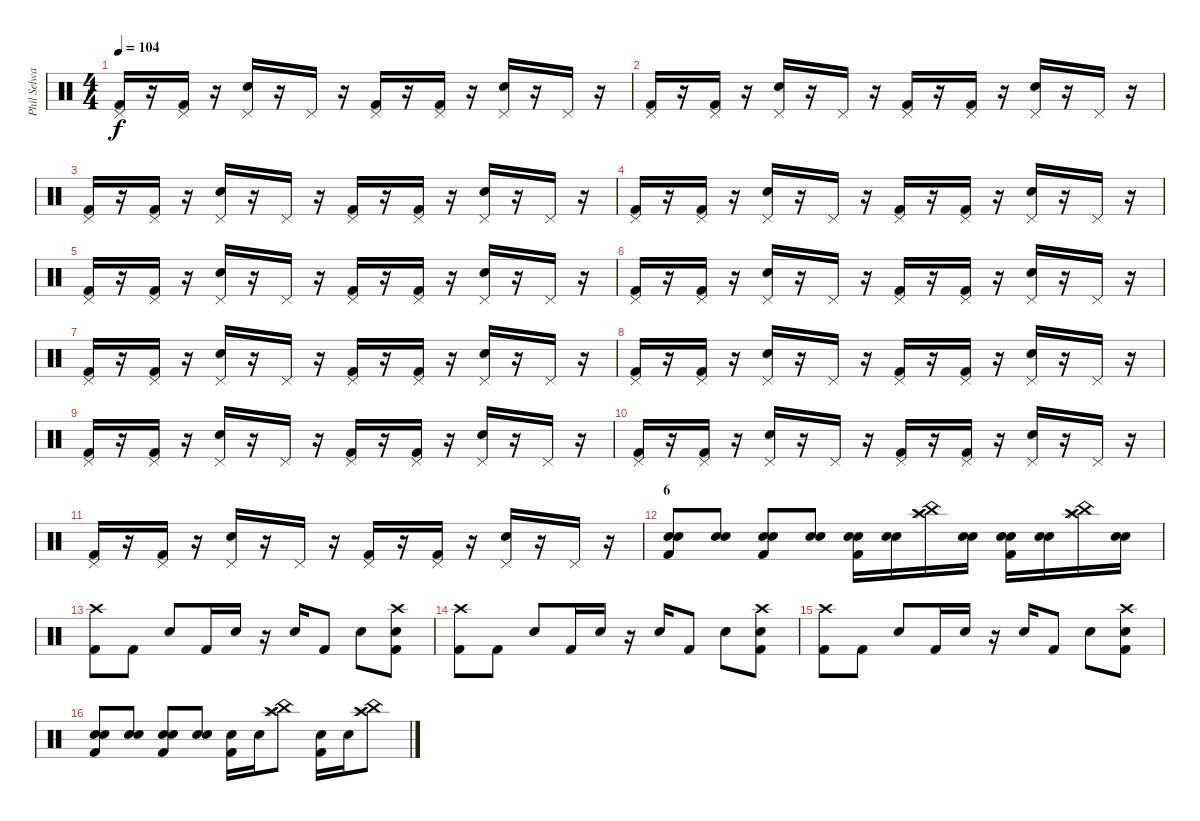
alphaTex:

\track ("Phil Selway" "Phil Selwa") {instrument percussion}
\staff {score}
\articulation defaults
\ts (4 4)
\tempo 104
\clef neutral
\ks c
("Pedal Hi-Hat (hit)" "Kick (hit) 2").16{dy f} r.16 ("Pedal Hi-Hat (hit)" "Kick (hit) 2").16 r.16 ("Pedal Hi-Hat (hit)" "Electric Snare (hit)").16 r.16 "Pedal Hi-Hat (hit)".16 r.16 ("Pedal Hi-Hat (hit)" "Kick (hit) 2").16 r.16 ("Pedal Hi-Hat (hit)" "Kick (hit) 2").16 r.16 ("Pedal Hi-Hat (hit)" "Electric Snare (hit)").16 r.16 "Pedal Hi-Hat (hit)".16 r.16 |
("Pedal Hi-Hat (hit)" "Kick (hit) 2").16 r.16 ("Pedal Hi-Hat (hit)" "Kick (hit) 2").16 r.16 ("Pedal Hi-Hat (hit)" "Electric Snare (hit)").16 r.16 "Pedal Hi-Hat (hit)".16 r.16 ("Pedal Hi-Hat (hit)" "Kick (hit) 2").16 r.16 ("Pedal Hi-Hat (hit)" "Kick (hit) 2").16 r.16 ("Pedal Hi-Hat (hit)" "Electric Snare (hit)").16 r.16 "Pedal Hi-Hat (hit)".16 r.16 |
("Pedal Hi-Hat (hit)" "Kick (hit) 2").16 r.16 ("Pedal Hi-Hat (hit)" "Kick (hit) 2").16 r.16 ("Pedal Hi-Hat (hit)" "Electric Snare (hit)").16 r.16 "Pedal Hi-Hat (hit)".16 r.16 ("Pedal Hi-Hat (hit)" "Kick (hit) 2").16 r.16 ("Pedal Hi-Hat (hit)" "Kick (hit) 2").16 r.16 ("Pedal Hi-Hat (hit)" "Electric Snare (hit)").16 r.16 "Pedal Hi-Hat (hit)".16 r.16 |
("Pedal Hi-Hat (hit)" "Kick (hit) 2").16 r.16 ("Pedal Hi-Hat (hit)" "Kick (hit) 2").16 r.16 ("Pedal Hi-Hat (hit)" "Electric Snare (hit)").16 r.16 "Pedal Hi-Hat (hit)".16 r.16 ("Pedal Hi-Hat (hit)" "Kick (hit) 2").16 r.16 ("Pedal Hi-Hat (hit)" "Kick (hit) 2").16 r.16 ("Pedal Hi-Hat (hit)" "Electric Snare (hit)").16 r.16 "Pedal Hi-Hat (hit)".16 r.16 |
("Pedal Hi-Hat (hit)" "Kick (hit) 2").16 r.16 ("Pedal Hi-Hat (hit)" "Kick (hit) 2").16 r.16 ("Pedal Hi-Hat (hit)" "Electric Snare (hit)").16 r.16 "Pedal Hi-Hat (hit)".16 r.16 ("Pedal Hi-Hat (hit)" "Kick (hit) 2").16 r.16 ("Pedal Hi-Hat (hit)" "Kick (hit) 2").16 r.16 ("Pedal Hi-Hat (hit)" "Electric Snare (hit)").16 r.16 "Pedal Hi-Hat (hit)".16 r.16 |
("Pedal Hi-Hat (hit)" "Kick (hit) 2").16 r.16 ("Pedal Hi-Hat (hit)" "Kick (hit) 2").16 r.16 ("Pedal Hi-Hat (hit)" "Electric Snare (hit)").16 r.16 "Pedal Hi-Hat (hit)".16 r.16 ("Pedal Hi-Hat (hit)" "Kick (hit) 2").16 r.16 ("Pedal Hi-Hat (hit)" "Kick (hit) 2").16 r.16 ("Pedal Hi-Hat (hit)" "Electric Snare (hit)").16 r.16 "Pedal Hi-Hat (hit)".16 r.16 |
("Pedal Hi-Hat (hit)" "Kick (hit) 2").16 r.16 ("Pedal Hi-Hat (hit)" "Kick (hit) 2").16 r.16 ("Pedal Hi-Hat (hit)" "Electric Snare (hit)").16 r.16 "Pedal Hi-Hat (hit)".16 r.16 ("Pedal Hi-Hat (hit)" "Kick (hit) 2").16 r.16 ("Pedal Hi-Hat (hit)" "Kick (hit) 2").16 r.16 ("Pedal Hi-Hat (hit)" "Electric Snare (hit)").16 r.16 "Pedal Hi-Hat (hit)".16 r.16 |
("Pedal Hi-Hat (hit)" "Kick (hit) 2").16 r.16 ("Pedal Hi-Hat (hit)" "Kick (hit) 2").16 r.16 ("Pedal Hi-Hat (hit)" "Electric Snare (hit)").16 r.16 "Pedal Hi-Hat (hit)".16 r.16 ("Pedal Hi-Hat (hit)" "Kick (hit) 2").16 r.16 ("Pedal Hi-Hat (hit)" "Kick (hit) 2").16 r.16 ("Pedal Hi-Hat (hit)" "Electric Snare (hit)").16 r.16 "Pedal Hi-Hat (hit)".16 r.16 |
("Pedal Hi-Hat (hit)" "Kick (hit) 2").16 r.16 ("Pedal Hi-Hat (hit)" "Kick (hit) 2").16 r.16 ("Pedal Hi-Hat (hit)" "Electric Snare (hit)").16 r.16 "Pedal Hi-Hat (hit)".16 r.16 ("Pedal Hi-Hat (hit)" "Kick (hit) 2").16 r.16 ("Pedal Hi-Hat (hit)" "Kick (hit) 2").16 r.16 ("Pedal Hi-Hat (hit)" "Electric Snare (hit)").16 r.16 "Pedal Hi-Hat (hit)".16 r.16 |
("Pedal Hi-Hat (hit)" "Kick (hit) 2").16 r.16 ("Pedal Hi-Hat (hit)" "Kick (hit) 2").16 r.16 ("Pedal Hi-Hat (hit)" "Electric Snare (hit)").16 r.16 "Pedal Hi-Hat (hit)".16 r.16 ("Pedal Hi-Hat (hit)" "Kick (hit) 2").16 r.16 ("Pedal Hi-Hat (hit)" "Kick (hit) 2").16 r.16 ("Pedal Hi-Hat (hit)" "Electric Snare (hit)").16 r.16 "Pedal Hi-Hat (hit)".16 r.16 |
("Pedal Hi-Hat (hit)" "Kick (hit) 2").16 r.16 ("Pedal Hi-Hat (hit)" "Kick (hit) 2").16 r.16 ("Pedal Hi-Hat (hit)" "Electric Snare (hit)").16 r.16 "Pedal Hi-Hat (hit)".16 r.16 ("Pedal Hi-Hat (hit)" "Kick (hit) 2").16 r.16 ("Pedal Hi-Hat (hit)" "Kick (hit) 2").16 r.16 ("Pedal Hi-Hat (hit)" "Electric Snare (hit)").16 r.16 "Pedal Hi-Hat (hit)".16 r.16 |
\section ("" "6")
("Electric Snare (hit)" "Snare (hit) 2" "Kick (hit) 2").8 ("Electric Snare (hit)" "Snare (hit) 2").8 ("Electric Snare (hit)" "Snare (hit) 2" "Kick (hit) 2").8 ("Electric Snare (hit)" "Snare (hit) 2").8 ("Electric Snare (hit)" "Kick (hit) 2" "Snare (hit) 2").16 ("Electric Snare (hit)" "Snare (hit) 2").16 ("Splash (hit)" "China (hit)" "Crash high (hit)").16 ("Electric Snare (hit)" "Snare (hit) 2").16 ("Electric Snare (hit)" "Kick (hit) 2" "Snare (hit) 2").16 ("Electric Snare (hit)" "Snare (hit) 2").16 ("Splash (hit)" "China (hit)" "Crash high (hit)").16 ("Electric Snare (hit)" "Snare (hit) 2").16 |
("Kick (hit) 2" "Crash high (hit)").8 "Kick (hit) 2".8 "Electric Snare (hit)".8 "Kick (hit) 2".16 "Electric Snare (hit)".16 r.16 "Electric Snare (hit)".16 "Kick (hit) 2".8 "Electric Snare (hit)".8 ("Kick (hit) 2" "Crash high (hit)" "Electric Snare (hit)").8 |
("Kick (hit) 2" "Crash high (hit)").8 "Kick (hit) 2".8 "Electric Snare (hit)".8 "Kick (hit) 2".16 "Electric Snare (hit)".16 r.16 "Electric Snare (hit)".16 "Kick (hit) 2".8 "Electric Snare (hit)".8 ("Kick (hit) 2" "Crash high (hit)" "Electric Snare (hit)").8 |
("Kick (hit) 2" "Crash high (hit)").8 "Kick (hit) 2".8 "Electric Snare (hit)".8 "Kick (hit) 2".16 "Electric Snare (hit)".16 r.16 "Electric Snare (hit)".16 "Kick (hit) 2".8 "Electric Snare (hit)".8 ("Kick (hit) 2" "Crash high (hit)" "Electric Snare (hit)").8 |
("Electric Snare (hit)" "Snare (hit) 2" "Kick (hit) 2").8 ("Electric Snare (hit)" "Snare (hit) 2").8 ("Electric Snare (hit)" "Snare (hit) 2" "Kick (hit) 2").8 ("Electric Snare (hit)" "Snare (hit) 2").8 ("Electric Snare (hit)" "Kick (hit) 2").16 "Electric Snare (hit)".16 ("Splash (hit)" "China (hit)" "Crash high (hit)").8 ("Electric Snare (hit)" "Kick (hit) 2").16 "Electric Snare (hit)".16 ("Splash (hit)" "China (hit)" "Crash high (hit)").8
